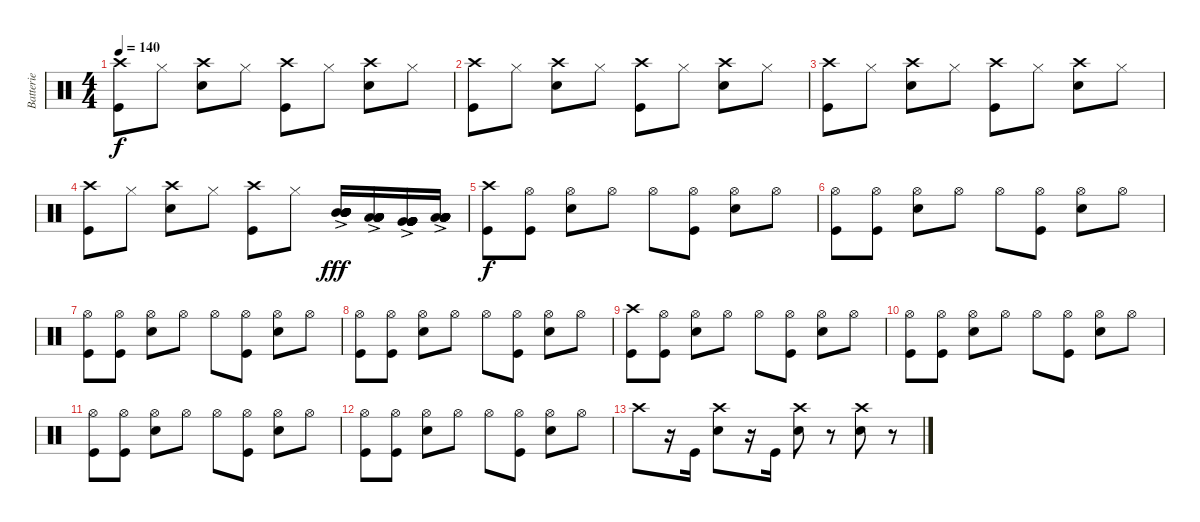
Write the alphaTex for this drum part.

\track ("Batterie" "Batterie") {instrument percussion}
\staff {score}
\articulation defaults
\ts (4 4)
\tempo 140
\clef neutral
\ks c
("Crash high (hit)" "Kick (hit)").8{dy f} "Hi-Hat (closed)".8 ("Crash high (hit)" "Electric Snare (hit)").8 "Hi-Hat (closed)".8 ("Crash high (hit)" "Kick (hit)").8 "Hi-Hat (closed)".8 ("Crash high (hit)" "Electric Snare (hit)").8 "Hi-Hat (closed)".8 |
("Crash high (hit)" "Kick (hit)").8 "Hi-Hat (closed)".8 ("Crash high (hit)" "Electric Snare (hit)").8 "Hi-Hat (closed)".8 ("Crash high (hit)" "Kick (hit)").8 "Hi-Hat (closed)".8 ("Crash high (hit)" "Electric Snare (hit)").8 "Hi-Hat (closed)".8 |
("Crash high (hit)" "Kick (hit)").8 "Hi-Hat (closed)".8 ("Crash high (hit)" "Electric Snare (hit)").8 "Hi-Hat (closed)".8 ("Crash high (hit)" "Kick (hit)").8 "Hi-Hat (closed)".8 ("Crash high (hit)" "Electric Snare (hit)").8 "Hi-Hat (closed)".8 |
("Crash high (hit)" "Kick (hit)").8 "Hi-Hat (closed)".8 ("Crash high (hit)" "Electric Snare (hit)").8 "Hi-Hat (closed)".8 ("Crash high (hit)" "Kick (hit)").8 "Hi-Hat (closed)".8 ("Mid Tom (hit)"{ac} "Mid Tom (hit)"{ac} "Mid Tom (hit)"{ac} "Mid Tom (hit)"{ac} "Mid Tom (hit)"{ac} "Mid Tom (hit)"{ac}).16{dy fff} ("Low Tom (hit)"{ac} "Low Tom (hit)"{ac} "Low Tom (hit)"{ac} "Low Tom (hit)"{ac} "Low Tom (hit)"{ac} "Low Tom (hit)"{ac}).16 ("Very Low Tom (hit)"{ac} "Very Low Tom (hit)"{ac} "Very Low Tom (hit)"{ac} "Very Low Tom (hit)"{ac} "Very Low Tom (hit)"{ac} "Very Low Tom (hit)"{ac}).16 ("Low Floor Tom (hit)"{ac} "Low Floor Tom (hit)"{ac} "Low Floor Tom (hit)"{ac} "Low Floor Tom (hit)"{ac} "Low Floor Tom (hit)"{ac} "Low Floor Tom (hit)"{ac}).16 |
("Crash high (hit)" "Kick (hit)").8{dy f} ("Hi-Hat (open)" "Kick (hit)").8 ("Hi-Hat (open)" "Electric Snare (hit)").8 "Hi-Hat (open)".8 "Hi-Hat (open)".8 ("Hi-Hat (open)" "Kick (hit)").8 ("Hi-Hat (open)" "Electric Snare (hit)").8 "Hi-Hat (open)".8 |
("Hi-Hat (open)" "Kick (hit)").8 ("Hi-Hat (open)" "Kick (hit)").8 ("Hi-Hat (open)" "Electric Snare (hit)").8 "Hi-Hat (open)".8 "Hi-Hat (open)".8 ("Hi-Hat (open)" "Kick (hit)").8 ("Hi-Hat (open)" "Electric Snare (hit)").8 "Hi-Hat (open)".8 |
("Hi-Hat (open)" "Kick (hit)").8 ("Hi-Hat (open)" "Kick (hit)").8 ("Hi-Hat (open)" "Electric Snare (hit)").8 "Hi-Hat (open)".8 "Hi-Hat (open)".8 ("Hi-Hat (open)" "Kick (hit)").8 ("Hi-Hat (open)" "Electric Snare (hit)").8 "Hi-Hat (open)".8 |
("Hi-Hat (open)" "Kick (hit)").8 ("Hi-Hat (open)" "Kick (hit)").8 ("Hi-Hat (open)" "Electric Snare (hit)").8 "Hi-Hat (open)".8 "Hi-Hat (open)".8 ("Hi-Hat (open)" "Kick (hit)").8 ("Hi-Hat (open)" "Electric Snare (hit)").8 "Hi-Hat (open)".8 |
("Crash high (hit)" "Kick (hit)").8 ("Hi-Hat (open)" "Kick (hit)").8 ("Hi-Hat (open)" "Electric Snare (hit)").8 "Hi-Hat (open)".8 "Hi-Hat (open)".8 ("Hi-Hat (open)" "Kick (hit)").8 ("Hi-Hat (open)" "Electric Snare (hit)").8 "Hi-Hat (open)".8 |
("Hi-Hat (open)" "Kick (hit)").8 ("Hi-Hat (open)" "Kick (hit)").8 ("Hi-Hat (open)" "Electric Snare (hit)").8 "Hi-Hat (open)".8 "Hi-Hat (open)".8 ("Hi-Hat (open)" "Kick (hit)").8 ("Hi-Hat (open)" "Electric Snare (hit)").8 "Hi-Hat (open)".8 |
("Hi-Hat (open)" "Kick (hit)").8 ("Hi-Hat (open)" "Kick (hit)").8 ("Hi-Hat (open)" "Electric Snare (hit)").8 "Hi-Hat (open)".8 "Hi-Hat (open)".8 ("Hi-Hat (open)" "Kick (hit)").8 ("Hi-Hat (open)" "Electric Snare (hit)").8 "Hi-Hat (open)".8 |
("Hi-Hat (open)" "Kick (hit)").8 ("Hi-Hat (open)" "Kick (hit)").8 ("Hi-Hat (open)" "Electric Snare (hit)").8 "Hi-Hat (open)".8 "Hi-Hat (open)".8 ("Hi-Hat (open)" "Kick (hit)").8 ("Hi-Hat (open)" "Electric Snare (hit)").8 "Hi-Hat (open)".8 |
"Crash high (hit)".8 r.16 "Kick (hit)".16 ("Crash high (hit)" "Electric Snare (hit)").8 r.16 "Kick (hit)".16 ("Crash high (hit)" "Electric Snare (hit)").8 r.8 ("Crash high (hit)" "Electric Snare (hit)").8 r.8
